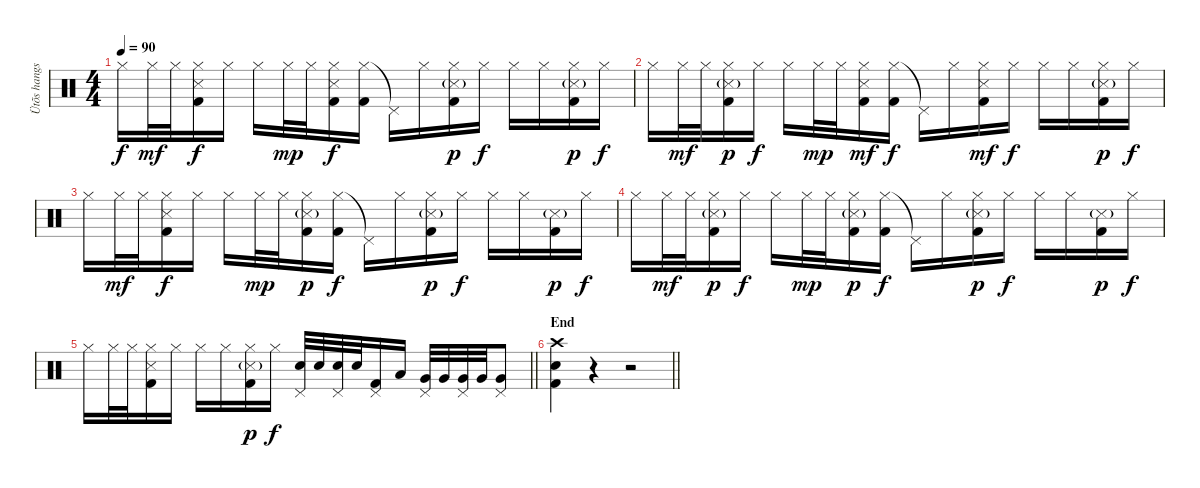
\track ("Ütõs hangszer" "Ütõs hangs") {instrument percussion}
\staff {score}
\articulation defaults
\ts (4 4)
\tempo 90
\clef neutral
\ks c "Hi-Hat (closed)".16{dy f} "Hi-Hat (closed)".32{dy mf} "Hi-Hat (closed)".32
("Hi-Hat (closed)" "Snare (side stick) 3" "Kick (hit) 2").16{dy f} "Hi-Hat (closed)".16 "Hi-Hat (closed)".16 "Hi-Hat (closed)".32{dy mp} "Hi-Hat (closed)".32 ("Hi-Hat (closed)" "Snare (side stick) 3" "Kick (hit) 2").16{dy f} ("Hi-Hat (closed)" "Kick (hit) 2").16 "Pedal Hi-Hat (hit)"{t}.16 "Hi-Hat (closed)".16 ("Hi-Hat (closed)" "Snare (side stick) 3"{g} "Kick (hit) 2").16{dy p} "Hi-Hat (closed)".16{dy f} "Hi-Hat (closed)".16 "Hi-Hat (closed)".16 ("Hi-Hat (closed)" "Snare (side stick) 3"{g} "Kick (hit) 2").16{dy p} "Hi-Hat (closed)".16{dy f} |
"Hi-Hat (closed)".16 "Hi-Hat (closed)".32{dy mf} "Hi-Hat (closed)".32 ("Hi-Hat (closed)" "Snare (side stick) 3"{g} "Kick (hit) 2").16{dy p} "Hi-Hat (closed)".16{dy f} "Hi-Hat (closed)".16 "Hi-Hat (closed)".32{dy mp} "Hi-Hat (closed)".32 ("Hi-Hat (closed)" "Snare (side stick) 3" "Kick (hit) 2").16{dy mf} ("Hi-Hat (closed)" "Kick (hit) 2").16{dy f} "Pedal Hi-Hat (hit)"{t}.16 "Hi-Hat (closed)".16 ("Hi-Hat (closed)" "Snare (side stick) 3" "Kick (hit) 2").16{dy mf} "Hi-Hat (closed)".16{dy f} "Hi-Hat (closed)".16 "Hi-Hat (closed)".16 ("Hi-Hat (closed)" "Snare (side stick) 3"{g} "Kick (hit) 2").16{dy p} "Hi-Hat (closed)".16{dy f} |
"Hi-Hat (closed)".16 "Hi-Hat (closed)".32{dy mf} "Hi-Hat (closed)".32 ("Hi-Hat (closed)" "Snare (side stick) 3" "Kick (hit) 2").16{dy f} "Hi-Hat (closed)".16 "Hi-Hat (closed)".16 "Hi-Hat (closed)".32{dy mp} "Hi-Hat (closed)".32 ("Hi-Hat (closed)" "Snare (side stick) 3"{g} "Kick (hit) 2").16{dy p} ("Hi-Hat (closed)" "Kick (hit) 2").16{dy f} "Pedal Hi-Hat (hit)"{t}.16 "Hi-Hat (closed)".16 ("Hi-Hat (closed)" "Snare (side stick) 3"{g} "Kick (hit) 2").16{dy p} "Hi-Hat (closed)".16{dy f} "Hi-Hat (closed)".16 "Hi-Hat (closed)".16 ("Snare (side stick) 3"{g} "Kick (hit) 2").16{dy p} "Hi-Hat (closed)".16{dy f} |
"Hi-Hat (closed)".16 "Hi-Hat (closed)".32{dy mf} "Hi-Hat (closed)".32 ("Hi-Hat (closed)" "Snare (side stick) 3"{g} "Kick (hit) 2").16{dy p} "Hi-Hat (closed)".16{dy f} "Hi-Hat (closed)".16 "Hi-Hat (closed)".32{dy mp} "Hi-Hat (closed)".32 ("Hi-Hat (closed)" "Snare (side stick) 3"{g} "Kick (hit) 2").16{dy p} ("Hi-Hat (closed)" "Kick (hit) 2").16{dy f} "Pedal Hi-Hat (hit)"{t}.16 "Hi-Hat (closed)".16 ("Hi-Hat (closed)" "Snare (side stick) 3"{g} "Kick (hit) 2").16{dy p} "Hi-Hat (closed)".16{dy f} "Hi-Hat (closed)".16 "Hi-Hat (closed)".16 ("Snare (side stick) 3"{g} "Kick (hit) 2").16{dy p} "Hi-Hat (closed)".16{dy f} |
\barLineRight lightlight "Hi-Hat (closed)".16 "Hi-Hat (closed)".32 "Hi-Hat (closed)".32
("Hi-Hat (closed)" "Snare (side stick) 3" "Kick (hit) 2").16 "Hi-Hat (closed)".16 "Hi-Hat (closed)".16 "Hi-Hat (closed)".16 ("Hi-Hat (closed)" "Snare (side stick) 3"{g} "Kick (hit) 2").16{dy p} "Hi-Hat (closed)".16{dy f} ("Pedal Hi-Hat (hit)" "Snare (hit) 2").32 "Snare (hit) 2".32 ("Pedal Hi-Hat (hit)" "Snare (hit) 2").32 "Snare (hit) 2".32 ("Pedal Hi-Hat (hit)" "Kick (hit) 2").16 "Low Floor Tom (hit)".16 ("Pedal Hi-Hat (hit)" "Very Low Tom (hit)").32 "Very Low Tom (hit)".32 ("Pedal Hi-Hat (hit)" "Very Low Tom (hit)").32 "Very Low Tom (hit)".32 ("Pedal Hi-Hat (hit)" "Very Low Tom (hit)").8 |
\section ("" "End")
\barLineRight lightlight
("Crash high (hit)" "Snare (hit) 2" "Kick (hit) 2").4 r.4 r.2
